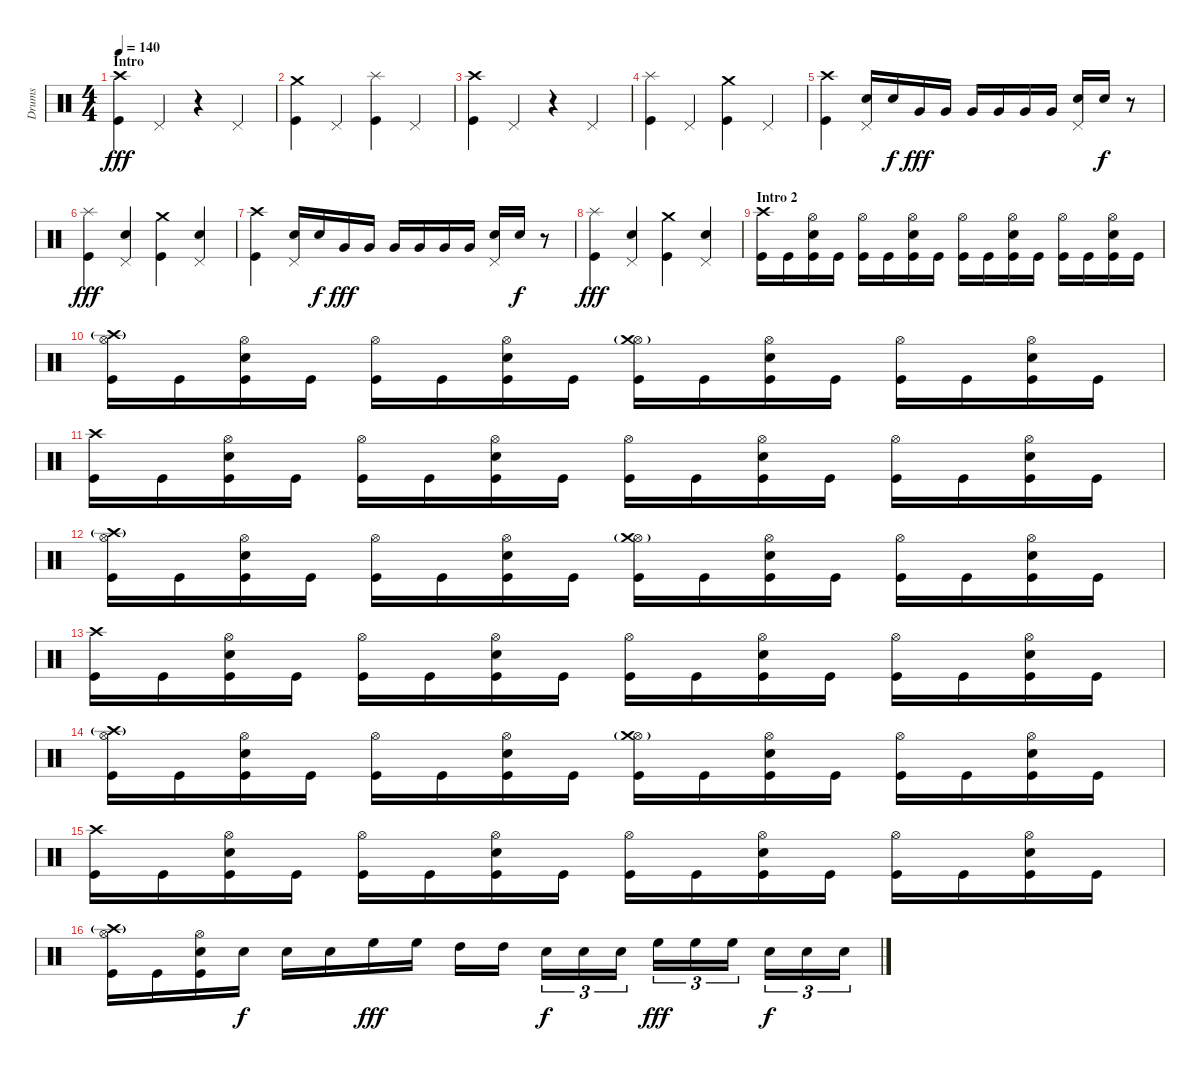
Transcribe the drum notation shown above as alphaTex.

\track ("Drums" "Drums") {instrument percussion}
\staff {score}
\articulation defaults
\ts (4 4)
\section ("" "Intro")
\tempo 140
\clef neutral
\ks c
("Crash high (hit)" "Kick (hit)").4{dy fff} "Pedal Hi-Hat (hit)".4 r.4 "Pedal Hi-Hat (hit)".4 |
("Crash medium (hit)" "Kick (hit)").4 "Pedal Hi-Hat (hit)".4 ("Splash (hit)" "Kick (hit)").4 "Pedal Hi-Hat (hit)".4 |
("Crash high (hit)" "Kick (hit)").4 "Pedal Hi-Hat (hit)".4 r.4 "Pedal Hi-Hat (hit)".4 |
("Splash (hit)" "Kick (hit)").4 "Pedal Hi-Hat (hit)".4 ("Crash medium (hit)" "Kick (hit)").4 "Pedal Hi-Hat (hit)".4 |
("Crash high (hit)" "Kick (hit)").4 ("Pedal Hi-Hat (hit)" "Snare (hit) 2").16 "Snare (hit) 2".16{dy f} "Very Low Tom (hit)".16{dy fff} "Very Low Tom (hit)".16 "Very Low Tom (hit)".16 "Very Low Tom (hit)".16 "Very Low Tom (hit)".16 "Very Low Tom (hit)".16 ("Pedal Hi-Hat (hit)" "Snare (hit) 2").16 "Snare (hit) 2".16{dy f} r.8 |
("Splash (hit)" "Kick (hit)").4{dy fff} ("Pedal Hi-Hat (hit)" "Snare (hit) 2").4 ("Crash medium (hit)" "Kick (hit)").4 ("Pedal Hi-Hat (hit)" "Snare (hit) 2").4 |
("Crash high (hit)" "Kick (hit)").4 ("Pedal Hi-Hat (hit)" "Snare (hit) 2").16 "Snare (hit) 2".16{dy f} "Very Low Tom (hit)".16{dy fff} "Very Low Tom (hit)".16 "Very Low Tom (hit)".16 "Very Low Tom (hit)".16 "Very Low Tom (hit)".16 "Very Low Tom (hit)".16 ("Pedal Hi-Hat (hit)" "Snare (hit) 2").16 "Snare (hit) 2".16{dy f} r.8 |
("Splash (hit)" "Kick (hit)").4{dy fff} ("Pedal Hi-Hat (hit)" "Snare (hit) 2").4 ("Crash medium (hit)" "Kick (hit)").4 ("Pedal Hi-Hat (hit)" "Snare (hit) 2").4 |
\section ("" "Intro 2")
("Crash high (hit)" "Kick (hit)").16 "Kick (hit)".16 ("Hi-Hat (open)" "Snare (hit) 2" "Kick (hit)").16 "Kick (hit)".16 ("Hi-Hat (open)" "Kick (hit)").16 "Kick (hit)".16 ("Hi-Hat (open)" "Snare (hit) 2" "Kick (hit)").16 "Kick (hit)".16 ("Hi-Hat (open)" "Kick (hit)").16 "Kick (hit)".16 ("Hi-Hat (open)" "Snare (hit) 2" "Kick (hit)").16 "Kick (hit)".16 ("Hi-Hat (open)" "Kick (hit)").16 "Kick (hit)".16 ("Hi-Hat (open)" "Snare (hit) 2" "Kick (hit)").16 "Kick (hit)".16 |
("Hi-Hat (open)" "Crash high (hit)"{g} "Kick (hit)").16 "Kick (hit)".16 ("Hi-Hat (open)" "Snare (hit) 2" "Kick (hit)").16 "Kick (hit)".16 ("Hi-Hat (open)" "Kick (hit)").16 "Kick (hit)".16 ("Hi-Hat (open)" "Snare (hit) 2" "Kick (hit)").16 "Kick (hit)".16 ("Hi-Hat (open)" "Crash medium (hit)"{g} "Kick (hit)").16 "Kick (hit)".16 ("Hi-Hat (open)" "Snare (hit) 2" "Kick (hit)").16 "Kick (hit)".16 ("Hi-Hat (open)" "Kick (hit)").16 "Kick (hit)".16 ("Hi-Hat (open)" "Snare (hit) 2" "Kick (hit)").16 "Kick (hit)".16 |
("Crash high (hit)" "Kick (hit)").16 "Kick (hit)".16 ("Hi-Hat (open)" "Snare (hit) 2" "Kick (hit)").16 "Kick (hit)".16 ("Hi-Hat (open)" "Kick (hit)").16 "Kick (hit)".16 ("Hi-Hat (open)" "Snare (hit) 2" "Kick (hit)").16 "Kick (hit)".16 ("Hi-Hat (open)" "Kick (hit)").16 "Kick (hit)".16 ("Hi-Hat (open)" "Snare (hit) 2" "Kick (hit)").16 "Kick (hit)".16 ("Hi-Hat (open)" "Kick (hit)").16 "Kick (hit)".16 ("Hi-Hat (open)" "Snare (hit) 2" "Kick (hit)").16 "Kick (hit)".16 |
("Hi-Hat (open)" "Crash high (hit)"{g} "Kick (hit)").16 "Kick (hit)".16 ("Hi-Hat (open)" "Snare (hit) 2" "Kick (hit)").16 "Kick (hit)".16 ("Hi-Hat (open)" "Kick (hit)").16 "Kick (hit)".16 ("Hi-Hat (open)" "Snare (hit) 2" "Kick (hit)").16 "Kick (hit)".16 ("Hi-Hat (open)" "Crash medium (hit)"{g} "Kick (hit)").16 "Kick (hit)".16 ("Hi-Hat (open)" "Snare (hit) 2" "Kick (hit)").16 "Kick (hit)".16 ("Hi-Hat (open)" "Kick (hit)").16 "Kick (hit)".16 ("Hi-Hat (open)" "Snare (hit) 2" "Kick (hit)").16 "Kick (hit)".16 |
("Crash high (hit)" "Kick (hit)").16 "Kick (hit)".16 ("Hi-Hat (open)" "Snare (hit) 2" "Kick (hit)").16 "Kick (hit)".16 ("Hi-Hat (open)" "Kick (hit)").16 "Kick (hit)".16 ("Hi-Hat (open)" "Snare (hit) 2" "Kick (hit)").16 "Kick (hit)".16 ("Hi-Hat (open)" "Kick (hit)").16 "Kick (hit)".16 ("Hi-Hat (open)" "Snare (hit) 2" "Kick (hit)").16 "Kick (hit)".16 ("Hi-Hat (open)" "Kick (hit)").16 "Kick (hit)".16 ("Hi-Hat (open)" "Snare (hit) 2" "Kick (hit)").16 "Kick (hit)".16 |
("Hi-Hat (open)" "Crash high (hit)"{g} "Kick (hit)").16 "Kick (hit)".16 ("Hi-Hat (open)" "Snare (hit) 2" "Kick (hit)").16 "Kick (hit)".16 ("Hi-Hat (open)" "Kick (hit)").16 "Kick (hit)".16 ("Hi-Hat (open)" "Snare (hit) 2" "Kick (hit)").16 "Kick (hit)".16 ("Hi-Hat (open)" "Crash medium (hit)"{g} "Kick (hit)").16 "Kick (hit)".16 ("Hi-Hat (open)" "Snare (hit) 2" "Kick (hit)").16 "Kick (hit)".16 ("Hi-Hat (open)" "Kick (hit)").16 "Kick (hit)".16 ("Hi-Hat (open)" "Snare (hit) 2" "Kick (hit)").16 "Kick (hit)".16 |
("Crash high (hit)" "Kick (hit)").16 "Kick (hit)".16 ("Hi-Hat (open)" "Snare (hit) 2" "Kick (hit)").16 "Kick (hit)".16 ("Hi-Hat (open)" "Kick (hit)").16 "Kick (hit)".16 ("Hi-Hat (open)" "Snare (hit) 2" "Kick (hit)").16 "Kick (hit)".16 ("Hi-Hat (open)" "Kick (hit)").16 "Kick (hit)".16 ("Hi-Hat (open)" "Snare (hit) 2" "Kick (hit)").16 "Kick (hit)".16 ("Hi-Hat (open)" "Kick (hit)").16 "Kick (hit)".16 ("Hi-Hat (open)" "Snare (hit) 2" "Kick (hit)").16 "Kick (hit)".16 |
("Hi-Hat (open)" "Crash high (hit)"{g} "Kick (hit)").16 "Kick (hit)".16 ("Hi-Hat (open)" "Snare (hit) 2" "Kick (hit)").16 "Snare (hit) 2".16{dy f} "Snare (hit) 2".16 "Snare (hit) 2".16 "High Floor Tom (hit)".16{dy fff} "High Floor Tom (hit)".16 "High Tom (hit)".16 "High Tom (hit)".16 "Snare (hit) 2".16{tu (3 2) dy f} "Snare (hit) 2".16{tu (3 2)} "Snare (hit) 2".16{tu (3 2)} "High Floor Tom (hit)".16{tu (3 2) dy fff} "High Floor Tom (hit)".16{tu (3 2)} "High Floor Tom (hit)".16{tu (3 2)} "Snare (hit) 2".16{tu (3 2) dy f} "Snare (hit) 2".16{tu (3 2)} "Snare (hit) 2".16{tu (3 2)}
